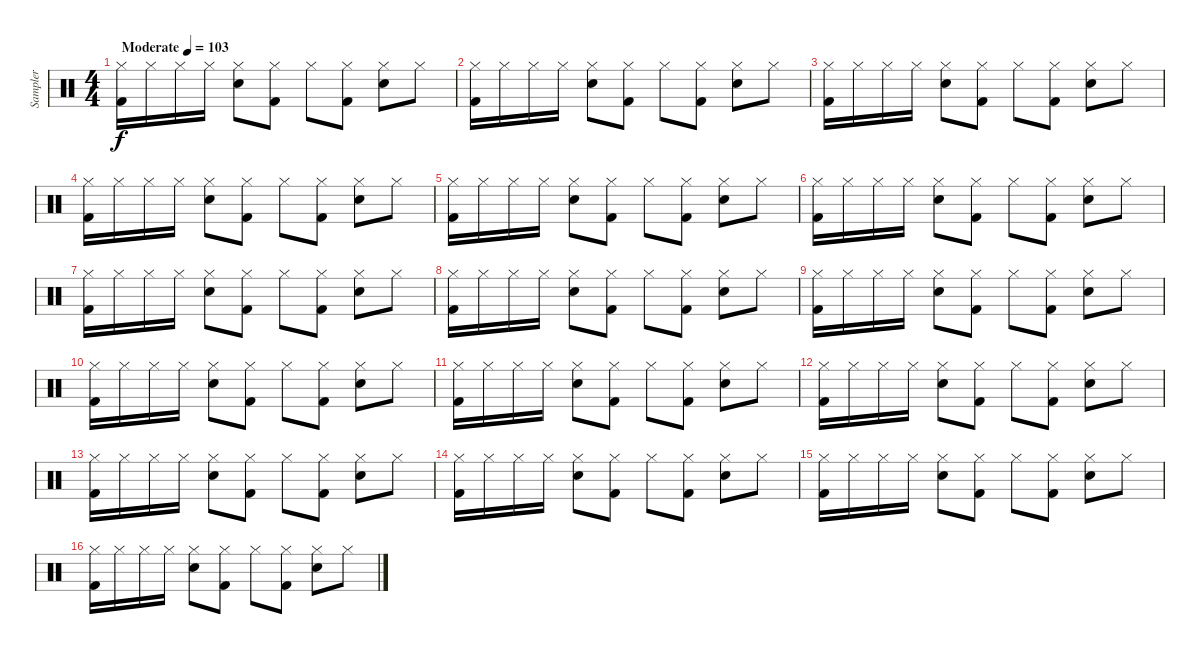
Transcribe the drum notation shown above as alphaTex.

\track ("Sampler" "Sampler") {instrument percussion}
\staff {score}
\articulation defaults
\ts (4 4)
\tempo (103 "Moderate")
\clef neutral
\ks c
("Hi-Hat (closed)" "Kick (hit) 2").16{dy f} "Hi-Hat (closed)".16 "Hi-Hat (closed)".16 "Hi-Hat (closed)".16 ("Hi-Hat (closed)" "Snare (hit) 2").8 ("Hi-Hat (closed)" "Kick (hit) 2").8 "Hi-Hat (closed)".8 ("Hi-Hat (closed)" "Kick (hit) 2").8 ("Hi-Hat (closed)" "Snare (hit) 2").8 "Hi-Hat (closed)".8 |
("Hi-Hat (closed)" "Kick (hit) 2").16 "Hi-Hat (closed)".16 "Hi-Hat (closed)".16 "Hi-Hat (closed)".16 ("Hi-Hat (closed)" "Snare (hit) 2").8 ("Hi-Hat (closed)" "Kick (hit) 2").8 "Hi-Hat (closed)".8 ("Hi-Hat (closed)" "Kick (hit) 2").8 ("Hi-Hat (closed)" "Snare (hit) 2").8 "Hi-Hat (closed)".8 |
("Hi-Hat (closed)" "Kick (hit) 2").16 "Hi-Hat (closed)".16 "Hi-Hat (closed)".16 "Hi-Hat (closed)".16 ("Hi-Hat (closed)" "Snare (hit) 2").8 ("Hi-Hat (closed)" "Kick (hit) 2").8 "Hi-Hat (closed)".8 ("Hi-Hat (closed)" "Kick (hit) 2").8 ("Hi-Hat (closed)" "Snare (hit) 2").8 "Hi-Hat (closed)".8 |
("Hi-Hat (closed)" "Kick (hit) 2").16 "Hi-Hat (closed)".16 "Hi-Hat (closed)".16 "Hi-Hat (closed)".16 ("Hi-Hat (closed)" "Snare (hit) 2").8 ("Hi-Hat (closed)" "Kick (hit) 2").8 "Hi-Hat (closed)".8 ("Hi-Hat (closed)" "Kick (hit) 2").8 ("Hi-Hat (closed)" "Snare (hit) 2").8 "Hi-Hat (closed)".8 |
("Hi-Hat (closed)" "Kick (hit) 2").16 "Hi-Hat (closed)".16 "Hi-Hat (closed)".16 "Hi-Hat (closed)".16 ("Hi-Hat (closed)" "Snare (hit) 2").8 ("Hi-Hat (closed)" "Kick (hit) 2").8 "Hi-Hat (closed)".8 ("Hi-Hat (closed)" "Kick (hit) 2").8 ("Hi-Hat (closed)" "Snare (hit) 2").8 "Hi-Hat (closed)".8 |
("Hi-Hat (closed)" "Kick (hit) 2").16 "Hi-Hat (closed)".16 "Hi-Hat (closed)".16 "Hi-Hat (closed)".16 ("Hi-Hat (closed)" "Snare (hit) 2").8 ("Hi-Hat (closed)" "Kick (hit) 2").8 "Hi-Hat (closed)".8 ("Hi-Hat (closed)" "Kick (hit) 2").8 ("Hi-Hat (closed)" "Snare (hit) 2").8 "Hi-Hat (closed)".8 |
("Hi-Hat (closed)" "Kick (hit) 2").16 "Hi-Hat (closed)".16 "Hi-Hat (closed)".16 "Hi-Hat (closed)".16 ("Hi-Hat (closed)" "Snare (hit) 2").8 ("Hi-Hat (closed)" "Kick (hit) 2").8 "Hi-Hat (closed)".8 ("Hi-Hat (closed)" "Kick (hit) 2").8 ("Hi-Hat (closed)" "Snare (hit) 2").8 "Hi-Hat (closed)".8 |
("Hi-Hat (closed)" "Kick (hit) 2").16 "Hi-Hat (closed)".16 "Hi-Hat (closed)".16 "Hi-Hat (closed)".16 ("Hi-Hat (closed)" "Snare (hit) 2").8 ("Hi-Hat (closed)" "Kick (hit) 2").8 "Hi-Hat (closed)".8 ("Hi-Hat (closed)" "Kick (hit) 2").8 ("Hi-Hat (closed)" "Snare (hit) 2").8 "Hi-Hat (closed)".8 |
("Hi-Hat (closed)" "Kick (hit) 2").16 "Hi-Hat (closed)".16 "Hi-Hat (closed)".16 "Hi-Hat (closed)".16 ("Hi-Hat (closed)" "Snare (hit) 2").8 ("Hi-Hat (closed)" "Kick (hit) 2").8 "Hi-Hat (closed)".8 ("Hi-Hat (closed)" "Kick (hit) 2").8 ("Hi-Hat (closed)" "Snare (hit) 2").8 "Hi-Hat (closed)".8 |
("Hi-Hat (closed)" "Kick (hit) 2").16 "Hi-Hat (closed)".16 "Hi-Hat (closed)".16 "Hi-Hat (closed)".16 ("Hi-Hat (closed)" "Snare (hit) 2").8 ("Hi-Hat (closed)" "Kick (hit) 2").8 "Hi-Hat (closed)".8 ("Hi-Hat (closed)" "Kick (hit) 2").8 ("Hi-Hat (closed)" "Snare (hit) 2").8 "Hi-Hat (closed)".8 |
("Hi-Hat (closed)" "Kick (hit) 2").16 "Hi-Hat (closed)".16 "Hi-Hat (closed)".16 "Hi-Hat (closed)".16 ("Hi-Hat (closed)" "Snare (hit) 2").8 ("Hi-Hat (closed)" "Kick (hit) 2").8 "Hi-Hat (closed)".8 ("Hi-Hat (closed)" "Kick (hit) 2").8 ("Hi-Hat (closed)" "Snare (hit) 2").8 "Hi-Hat (closed)".8 |
("Hi-Hat (closed)" "Kick (hit) 2").16 "Hi-Hat (closed)".16 "Hi-Hat (closed)".16 "Hi-Hat (closed)".16 ("Hi-Hat (closed)" "Snare (hit) 2").8 ("Hi-Hat (closed)" "Kick (hit) 2").8 "Hi-Hat (closed)".8 ("Hi-Hat (closed)" "Kick (hit) 2").8 ("Hi-Hat (closed)" "Snare (hit) 2").8 "Hi-Hat (closed)".8 |
("Hi-Hat (closed)" "Kick (hit) 2").16 "Hi-Hat (closed)".16 "Hi-Hat (closed)".16 "Hi-Hat (closed)".16 ("Hi-Hat (closed)" "Snare (hit) 2").8 ("Hi-Hat (closed)" "Kick (hit) 2").8 "Hi-Hat (closed)".8 ("Hi-Hat (closed)" "Kick (hit) 2").8 ("Hi-Hat (closed)" "Snare (hit) 2").8 "Hi-Hat (closed)".8 |
("Hi-Hat (closed)" "Kick (hit) 2").16 "Hi-Hat (closed)".16 "Hi-Hat (closed)".16 "Hi-Hat (closed)".16 ("Hi-Hat (closed)" "Snare (hit) 2").8 ("Hi-Hat (closed)" "Kick (hit) 2").8 "Hi-Hat (closed)".8 ("Hi-Hat (closed)" "Kick (hit) 2").8 ("Hi-Hat (closed)" "Snare (hit) 2").8 "Hi-Hat (closed)".8 |
("Hi-Hat (closed)" "Kick (hit) 2").16 "Hi-Hat (closed)".16 "Hi-Hat (closed)".16 "Hi-Hat (closed)".16 ("Hi-Hat (closed)" "Snare (hit) 2").8 ("Hi-Hat (closed)" "Kick (hit) 2").8 "Hi-Hat (closed)".8 ("Hi-Hat (closed)" "Kick (hit) 2").8 ("Hi-Hat (closed)" "Snare (hit) 2").8 "Hi-Hat (closed)".8 |
("Hi-Hat (closed)" "Kick (hit) 2").16 "Hi-Hat (closed)".16 "Hi-Hat (closed)".16 "Hi-Hat (closed)".16 ("Hi-Hat (closed)" "Snare (hit) 2").8 ("Hi-Hat (closed)" "Kick (hit) 2").8 "Hi-Hat (closed)".8 ("Hi-Hat (closed)" "Kick (hit) 2").8 ("Hi-Hat (closed)" "Snare (hit) 2").8 "Hi-Hat (closed)".8
